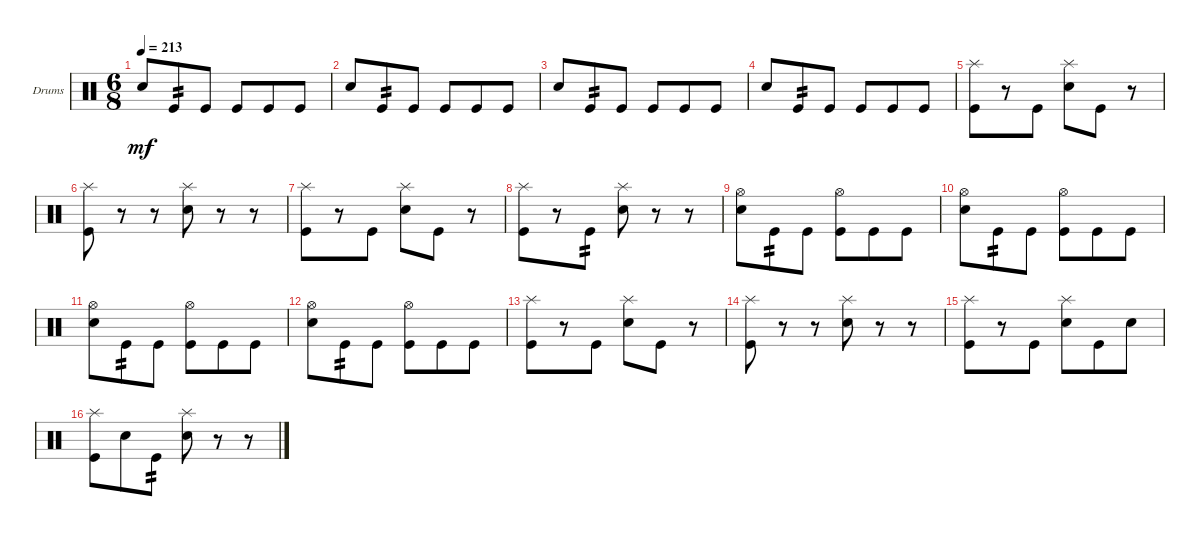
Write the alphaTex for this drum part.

\bracketExtendMode groupsimilarinstruments
\firstSystemTrackNameOrientation horizontal
\otherSystemsTrackNameOrientation horizontal
\track ("Drumkit" "Drums") {instrument percussion}
\staff {score}
\articulation defaults
\ts (6 8)
\tempo 213
\clef neutral
\ks c "Snare (hit) 2".8{dy mf} "Kick (hit)".8{tp 2} "Kick (hit)".8 "Kick (hit)".8 "Kick (hit)".8 "Kick (hit)".8
|
"Snare (hit) 2".8 "Kick (hit)".8{tp 2} "Kick (hit)".8 "Kick (hit)".8 "Kick (hit)".8 "Kick (hit)".8 |
"Snare (hit) 2".8 "Kick (hit)".8{tp 2} "Kick (hit)".8 "Kick (hit)".8 "Kick (hit)".8 "Kick (hit)".8 |
"Snare (hit) 2".8 "Kick (hit)".8{tp 2} "Kick (hit)".8 "Kick (hit)".8 "Kick (hit)".8 "Kick (hit)".8 |
("Kick (hit)" "Splash (hit)").8 r.8 "Kick (hit)".8 ("Snare (hit) 2" "Splash (hit)").8 "Kick (hit)".8 r.8 |
("Kick (hit)" "Splash (hit)").8 r.8 r.8 ("Snare (hit) 2" "Splash (hit)").8 r.8 r.8 |
("Kick (hit)" "Splash (hit)").8 r.8 "Kick (hit)".8 ("Snare (hit) 2" "Splash (hit)").8 "Kick (hit)".8 r.8 |
("Kick (hit)" "Splash (hit)").8 r.8 "Kick (hit)".8{tp 2} ("Snare (hit) 2" "Splash (hit)").8 r.8 r.8 |
("Snare (hit) 2" "Hi-Hat (open)").8 "Kick (hit)".8{tp 2} "Kick (hit)".8 ("Kick (hit)" "Hi-Hat (open)").8 "Kick (hit)".8 "Kick (hit)".8 |
("Snare (hit) 2" "Hi-Hat (open)").8 "Kick (hit)".8{tp 2} "Kick (hit)".8 ("Kick (hit)" "Hi-Hat (open)").8 "Kick (hit)".8 "Kick (hit)".8 |
("Snare (hit) 2" "Hi-Hat (open)").8 "Kick (hit)".8{tp 2} "Kick (hit)".8 ("Kick (hit)" "Hi-Hat (open)").8 "Kick (hit)".8 "Kick (hit)".8 |
("Snare (hit) 2" "Hi-Hat (open)").8 "Kick (hit)".8{tp 2} "Kick (hit)".8 ("Kick (hit)" "Hi-Hat (open)").8 "Kick (hit)".8 "Kick (hit)".8 |
("Kick (hit)" "Splash (hit)").8 r.8 "Kick (hit)".8 ("Snare (hit) 2" "Splash (hit)").8 "Kick (hit)".8 r.8 |
("Kick (hit)" "Splash (hit)").8 r.8 r.8 ("Snare (hit) 2" "Splash (hit)").8 r.8 r.8 |
("Kick (hit)" "Splash (hit)").8 r.8 "Kick (hit)".8 ("Snare (hit) 2" "Splash (hit)").8 "Kick (hit)".8 "Snare (hit) 2".8 |
("Kick (hit)" "Splash (hit)").8 "Snare (hit) 2".8 "Kick (hit)".8{tp 2} ("Snare (hit) 2" "Splash (hit)").8 r.8 r.8
